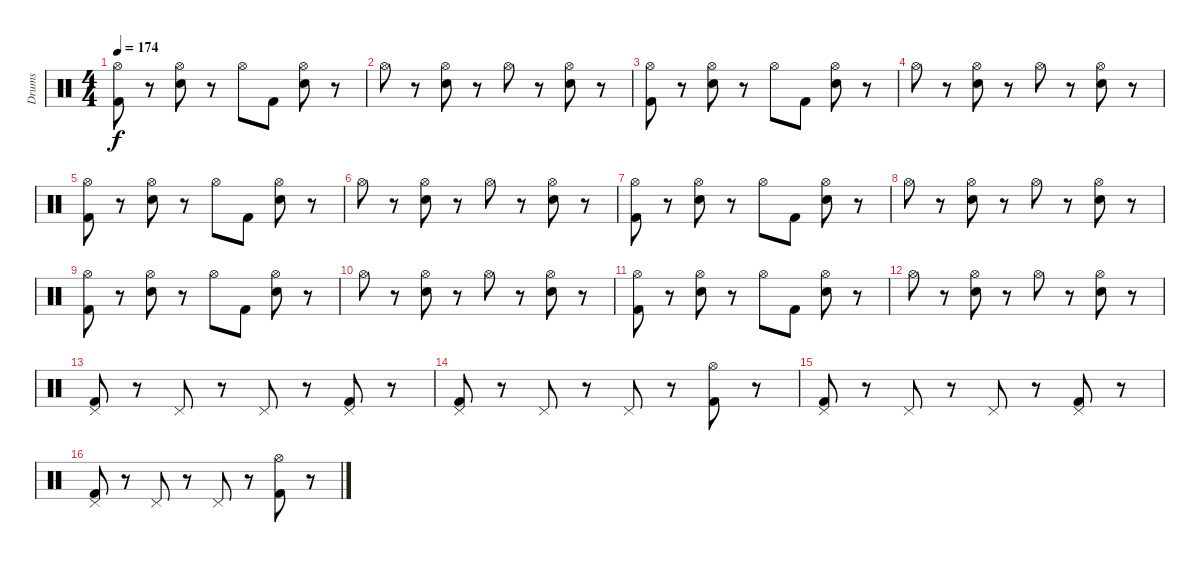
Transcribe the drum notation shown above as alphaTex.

\track ("Drums" "Drums") {instrument percussion}
\staff {score}
\articulation defaults
\ts (4 4)
\tempo 174
\clef neutral
\ks c
("Hi-Hat (open)" "Kick (hit) 2").8{dy f} r.8 ("Hi-Hat (open)" "Snare (hit) 2").8 r.8 "Hi-Hat (open)".8 "Kick (hit) 2".8 ("Hi-Hat (open)" "Snare (hit) 2").8 r.8 |
"Hi-Hat (open)".8 r.8 ("Hi-Hat (open)" "Snare (hit) 2").8 r.8 "Hi-Hat (open)".8 r.8 ("Hi-Hat (open)" "Snare (hit) 2").8 r.8 |
("Hi-Hat (open)" "Kick (hit) 2").8 r.8 ("Hi-Hat (open)" "Snare (hit) 2").8 r.8 "Hi-Hat (open)".8 "Kick (hit) 2".8 ("Hi-Hat (open)" "Snare (hit) 2").8 r.8 |
"Hi-Hat (open)".8 r.8 ("Hi-Hat (open)" "Snare (hit) 2").8 r.8 "Hi-Hat (open)".8 r.8 ("Hi-Hat (open)" "Snare (hit) 2").8 r.8 |
("Hi-Hat (open)" "Kick (hit) 2").8 r.8 ("Hi-Hat (open)" "Snare (hit) 2").8 r.8 "Hi-Hat (open)".8 "Kick (hit) 2".8 ("Hi-Hat (open)" "Snare (hit) 2").8 r.8 |
"Hi-Hat (open)".8 r.8 ("Hi-Hat (open)" "Snare (hit) 2").8 r.8 "Hi-Hat (open)".8 r.8 ("Hi-Hat (open)" "Snare (hit) 2").8 r.8 |
("Hi-Hat (open)" "Kick (hit) 2").8 r.8 ("Hi-Hat (open)" "Snare (hit) 2").8 r.8 "Hi-Hat (open)".8 "Kick (hit) 2".8 ("Hi-Hat (open)" "Snare (hit) 2").8 r.8 |
"Hi-Hat (open)".8 r.8 ("Hi-Hat (open)" "Snare (hit) 2").8 r.8 "Hi-Hat (open)".8 r.8 ("Hi-Hat (open)" "Snare (hit) 2").8 r.8 |
("Hi-Hat (open)" "Kick (hit) 2").8 r.8 ("Hi-Hat (open)" "Snare (hit) 2").8 r.8 "Hi-Hat (open)".8 "Kick (hit) 2".8 ("Hi-Hat (open)" "Snare (hit) 2").8 r.8 |
"Hi-Hat (open)".8 r.8 ("Hi-Hat (open)" "Snare (hit) 2").8 r.8 "Hi-Hat (open)".8 r.8 ("Hi-Hat (open)" "Snare (hit) 2").8 r.8 |
("Hi-Hat (open)" "Kick (hit) 2").8 r.8 ("Hi-Hat (open)" "Snare (hit) 2").8 r.8 "Hi-Hat (open)".8 "Kick (hit) 2".8 ("Hi-Hat (open)" "Snare (hit) 2").8 r.8 |
"Hi-Hat (open)".8 r.8 ("Hi-Hat (open)" "Snare (hit) 2").8 r.8 "Hi-Hat (open)".8 r.8 ("Hi-Hat (open)" "Snare (hit) 2").8 r.8 |
("Pedal Hi-Hat (hit)" "Kick (hit) 2").8 r.8 "Pedal Hi-Hat (hit)".8 r.8 "Pedal Hi-Hat (hit)".8 r.8 ("Pedal Hi-Hat (hit)" "Kick (hit) 2").8 r.8 |
("Pedal Hi-Hat (hit)" "Kick (hit) 2").8 r.8 "Pedal Hi-Hat (hit)".8 r.8 "Pedal Hi-Hat (hit)".8 r.8 ("Hi-Hat (open)" "Kick (hit) 2").8 r.8 |
("Pedal Hi-Hat (hit)" "Kick (hit) 2").8 r.8 "Pedal Hi-Hat (hit)".8 r.8 "Pedal Hi-Hat (hit)".8 r.8 ("Pedal Hi-Hat (hit)" "Kick (hit) 2").8 r.8 |
("Pedal Hi-Hat (hit)" "Kick (hit) 2").8 r.8 "Pedal Hi-Hat (hit)".8 r.8 "Pedal Hi-Hat (hit)".8 r.8 ("Hi-Hat (open)" "Kick (hit) 2").8 r.8
